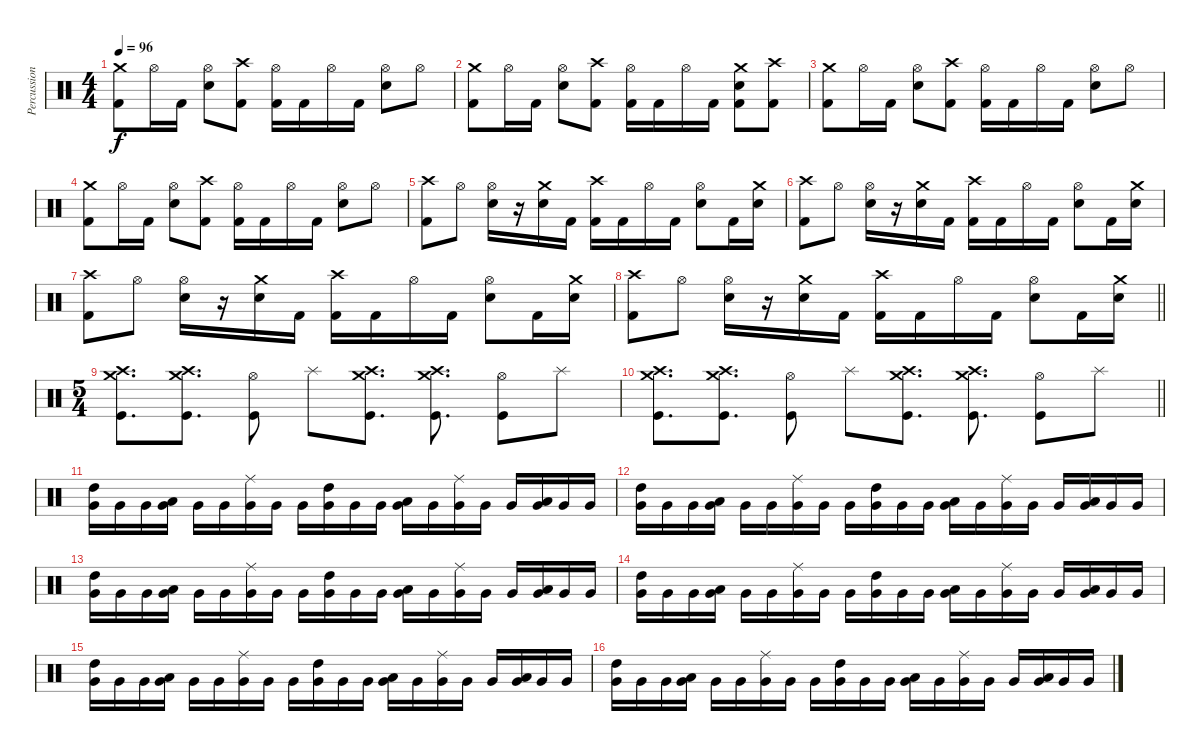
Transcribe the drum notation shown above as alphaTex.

\track ("Percussion" "Percussion") {instrument percussion}
\staff {score}
\articulation defaults
\ts (4 4)
\tempo 96
\clef neutral
\ks c
("Crash medium (hit)" "Kick (hit) 2").8{dy f} "Hi-Hat (open)".16 "Kick (hit) 2".16 ("Hi-Hat (open)" "Electric Snare (hit)").8 ("Crash high (hit)" "Kick (hit) 2").8 ("Hi-Hat (open)" "Kick (hit) 2").16 "Kick (hit) 2".16 "Hi-Hat (open)".16 "Kick (hit) 2".16 ("Hi-Hat (open)" "Electric Snare (hit)").8 "Hi-Hat (open)".8 |
("Crash medium (hit)" "Kick (hit) 2").8 "Hi-Hat (open)".16 "Kick (hit) 2".16 ("Hi-Hat (open)" "Electric Snare (hit)").8 ("Crash high (hit)" "Kick (hit) 2").8 ("Hi-Hat (open)" "Kick (hit) 2").16 "Kick (hit) 2".16 "Hi-Hat (open)".16 "Kick (hit) 2".16 ("Crash medium (hit)" "Electric Snare (hit)" "Kick (hit) 2").8 ("Crash high (hit)" "Kick (hit) 2").8 |
("Crash medium (hit)" "Kick (hit) 2").8 "Hi-Hat (open)".16 "Kick (hit) 2".16 ("Hi-Hat (open)" "Electric Snare (hit)").8 ("Crash high (hit)" "Kick (hit) 2").8 ("Hi-Hat (open)" "Kick (hit) 2").16 "Kick (hit) 2".16 "Hi-Hat (open)".16 "Kick (hit) 2".16 ("Hi-Hat (open)" "Electric Snare (hit)").8 "Hi-Hat (open)".8 |
("Crash medium (hit)" "Kick (hit) 2").8 "Hi-Hat (open)".16 "Kick (hit) 2".16 ("Hi-Hat (open)" "Electric Snare (hit)").8 ("Crash high (hit)" "Kick (hit) 2").8 ("Hi-Hat (open)" "Kick (hit) 2").16 "Kick (hit) 2".16 "Hi-Hat (open)".16 "Kick (hit) 2".16 ("Hi-Hat (open)" "Electric Snare (hit)").8 "Hi-Hat (open)".8 |
("Crash high (hit)" "Kick (hit) 2").8 "Hi-Hat (open)".8 ("Hi-Hat (open)" "Electric Snare (hit)").16 r.16 ("Crash medium (hit)" "Electric Snare (hit)").16 "Kick (hit) 2".16 ("Crash high (hit)" "Kick (hit) 2").16 "Kick (hit) 2".16 "Hi-Hat (open)".16 "Kick (hit) 2".16 ("Hi-Hat (open)" "Electric Snare (hit)").8 "Kick (hit) 2".16 ("Crash medium (hit)" "Electric Snare (hit)").16 |
("Crash high (hit)" "Kick (hit) 2").8 "Hi-Hat (open)".8 ("Hi-Hat (open)" "Electric Snare (hit)").16 r.16 ("Crash medium (hit)" "Electric Snare (hit)").16 "Kick (hit) 2".16 ("Crash high (hit)" "Kick (hit) 2").16 "Kick (hit) 2".16 "Hi-Hat (open)".16 "Kick (hit) 2".16 ("Hi-Hat (open)" "Electric Snare (hit)").8 "Kick (hit) 2".16 ("Crash medium (hit)" "Electric Snare (hit)").16 |
("Crash high (hit)" "Kick (hit) 2").8 "Hi-Hat (open)".8 ("Hi-Hat (open)" "Electric Snare (hit)").16 r.16 ("Crash medium (hit)" "Electric Snare (hit)").16 "Kick (hit) 2".16 ("Crash high (hit)" "Kick (hit) 2").16 "Kick (hit) 2".16 "Hi-Hat (open)".16 "Kick (hit) 2".16 ("Hi-Hat (open)" "Electric Snare (hit)").8 "Kick (hit) 2".16 ("Crash medium (hit)" "Electric Snare (hit)").16 |
\barLineRight lightlight
("Crash high (hit)" "Kick (hit) 2").8 "Hi-Hat (open)".8 ("Hi-Hat (open)" "Electric Snare (hit)").16 r.16 ("Crash medium (hit)" "Electric Snare (hit)").16 "Kick (hit) 2".16 ("Crash high (hit)" "Kick (hit) 2").16 "Kick (hit) 2".16 "Hi-Hat (open)".16 "Kick (hit) 2".16 ("Hi-Hat (open)" "Electric Snare (hit)").8 "Kick (hit) 2".16 ("Crash medium (hit)" "Electric Snare (hit)").16 |
\ts (5 4)
\section ("" "")
("Crash medium (hit)" "Crash high (hit)" "Kick (hit)").8{d} ("Crash medium (hit)" "Crash high (hit)" "Kick (hit)").8{d} ("Hi-Hat (open)" "Kick (hit)").8 "Splash (hit)".8 ("Crash medium (hit)" "Crash high (hit)" "Kick (hit)").8{d} ("Crash medium (hit)" "Crash high (hit)" "Kick (hit)").8{d} ("Hi-Hat (open)" "Kick (hit)").8 "Splash (hit)".8 |
\barLineRight lightlight
("Crash medium (hit)" "Crash high (hit)" "Kick (hit)").8{d} ("Crash medium (hit)" "Crash high (hit)" "Kick (hit)").8{d} ("Hi-Hat (open)" "Kick (hit)").8 "Splash (hit)".8 ("Crash medium (hit)" "Crash high (hit)" "Kick (hit)").8{d} ("Crash medium (hit)" "Crash high (hit)" "Kick (hit)").8{d} ("Hi-Hat (open)" "Kick (hit)").8 "Splash (hit)".8 |
\section ("" "")
("High Tom (hit)" "Very Low Tom (hit)").16{volume 10} "Very Low Tom (hit)".16 "Very Low Tom (hit)".16 ("Low Tom (hit)" "Very Low Tom (hit)").16 "Very Low Tom (hit)".16 "Very Low Tom (hit)".16 ("Ride (middle)" "Very Low Tom (hit)").16 "Very Low Tom (hit)".16 "Very Low Tom (hit)".16 ("High Tom (hit)" "Very Low Tom (hit)").16 "Very Low Tom (hit)".16 "Very Low Tom (hit)".16 ("Low Tom (hit)" "Very Low Tom (hit)").16 "Very Low Tom (hit)".16 ("Ride (middle)" "Very Low Tom (hit)").16 "Very Low Tom (hit)".16 "Very Low Tom (hit)".16 ("Low Tom (hit)" "Very Low Tom (hit)").16 "Very Low Tom (hit)".16 "Very Low Tom (hit)".16 |
("High Tom (hit)" "Very Low Tom (hit)").16{volume 10} "Very Low Tom (hit)".16 "Very Low Tom (hit)".16 ("Low Tom (hit)" "Very Low Tom (hit)").16 "Very Low Tom (hit)".16 "Very Low Tom (hit)".16 ("Ride (middle)" "Very Low Tom (hit)").16 "Very Low Tom (hit)".16 "Very Low Tom (hit)".16 ("High Tom (hit)" "Very Low Tom (hit)").16 "Very Low Tom (hit)".16 "Very Low Tom (hit)".16 ("Low Tom (hit)" "Very Low Tom (hit)").16 "Very Low Tom (hit)".16 ("Ride (middle)" "Very Low Tom (hit)").16 "Very Low Tom (hit)".16 "Very Low Tom (hit)".16 ("Low Tom (hit)" "Very Low Tom (hit)").16 "Very Low Tom (hit)".16 "Very Low Tom (hit)".16 |
("High Tom (hit)" "Very Low Tom (hit)").16{volume 10} "Very Low Tom (hit)".16 "Very Low Tom (hit)".16 ("Low Tom (hit)" "Very Low Tom (hit)").16 "Very Low Tom (hit)".16 "Very Low Tom (hit)".16 ("Ride (middle)" "Very Low Tom (hit)").16 "Very Low Tom (hit)".16 "Very Low Tom (hit)".16 ("High Tom (hit)" "Very Low Tom (hit)").16 "Very Low Tom (hit)".16 "Very Low Tom (hit)".16 ("Low Tom (hit)" "Very Low Tom (hit)").16 "Very Low Tom (hit)".16 ("Ride (middle)" "Very Low Tom (hit)").16 "Very Low Tom (hit)".16 "Very Low Tom (hit)".16 ("Low Tom (hit)" "Very Low Tom (hit)").16 "Very Low Tom (hit)".16 "Very Low Tom (hit)".16 |
("High Tom (hit)" "Very Low Tom (hit)").16{volume 10} "Very Low Tom (hit)".16 "Very Low Tom (hit)".16 ("Low Tom (hit)" "Very Low Tom (hit)").16 "Very Low Tom (hit)".16 "Very Low Tom (hit)".16 ("Ride (middle)" "Very Low Tom (hit)").16 "Very Low Tom (hit)".16 "Very Low Tom (hit)".16 ("High Tom (hit)" "Very Low Tom (hit)").16 "Very Low Tom (hit)".16 "Very Low Tom (hit)".16 ("Low Tom (hit)" "Very Low Tom (hit)").16 "Very Low Tom (hit)".16 ("Ride (middle)" "Very Low Tom (hit)").16 "Very Low Tom (hit)".16 "Very Low Tom (hit)".16 ("Low Tom (hit)" "Very Low Tom (hit)").16 "Very Low Tom (hit)".16 "Very Low Tom (hit)".16 |
("High Tom (hit)" "Very Low Tom (hit)").16{volume 10} "Very Low Tom (hit)".16 "Very Low Tom (hit)".16 ("Low Tom (hit)" "Very Low Tom (hit)").16 "Very Low Tom (hit)".16 "Very Low Tom (hit)".16 ("Ride (middle)" "Very Low Tom (hit)").16 "Very Low Tom (hit)".16 "Very Low Tom (hit)".16 ("High Tom (hit)" "Very Low Tom (hit)").16 "Very Low Tom (hit)".16 "Very Low Tom (hit)".16 ("Low Tom (hit)" "Very Low Tom (hit)").16 "Very Low Tom (hit)".16 ("Ride (middle)" "Very Low Tom (hit)").16 "Very Low Tom (hit)".16 "Very Low Tom (hit)".16 ("Low Tom (hit)" "Very Low Tom (hit)").16 "Very Low Tom (hit)".16 "Very Low Tom (hit)".16 |
("High Tom (hit)" "Very Low Tom (hit)").16{volume 10} "Very Low Tom (hit)".16 "Very Low Tom (hit)".16 ("Low Tom (hit)" "Very Low Tom (hit)").16 "Very Low Tom (hit)".16 "Very Low Tom (hit)".16 ("Ride (middle)" "Very Low Tom (hit)").16 "Very Low Tom (hit)".16 "Very Low Tom (hit)".16 ("High Tom (hit)" "Very Low Tom (hit)").16 "Very Low Tom (hit)".16 "Very Low Tom (hit)".16 ("Low Tom (hit)" "Very Low Tom (hit)").16 "Very Low Tom (hit)".16 ("Ride (middle)" "Very Low Tom (hit)").16 "Very Low Tom (hit)".16 "Very Low Tom (hit)".16 ("Low Tom (hit)" "Very Low Tom (hit)").16 "Very Low Tom (hit)".16 "Very Low Tom (hit)".16
